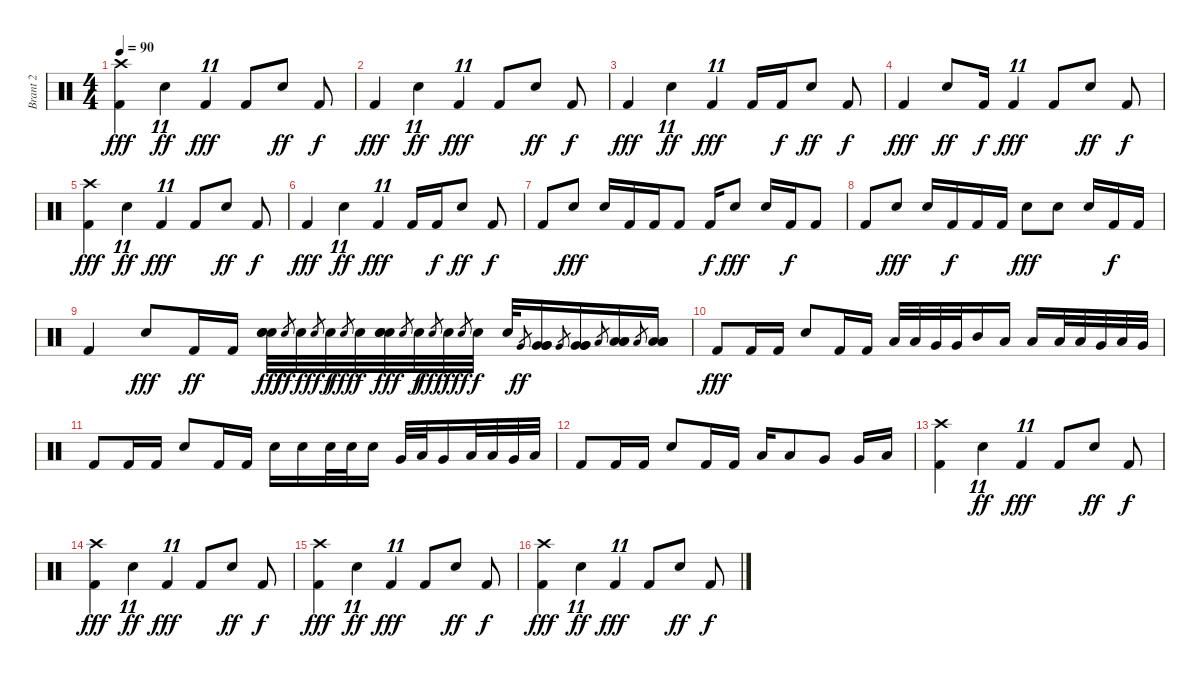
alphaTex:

\track ("Brant 2" "Brant 2") {instrument percussion}
\staff {score}
\articulation defaults
\ts (4 4)
\tempo 90
\clef neutral
\ks c
("Crash high (hit)" "Kick (hit) 2").4{dy fff} "Electric Snare (hit)".4{tu (11 8) dy ff} "Kick (hit) 2".4{tu (11 8) dy fff} "Kick (hit) 2".8 "Electric Snare (hit)".8{dy ff} "Kick (hit) 2".8{dy f} |
"Kick (hit) 2".4{dy fff} "Electric Snare (hit)".4{tu (11 8) dy ff} "Kick (hit) 2".4{tu (11 8) dy fff} "Kick (hit) 2".8 "Electric Snare (hit)".8{dy ff} "Kick (hit) 2".8{dy f} |
"Kick (hit) 2".4{dy fff} "Electric Snare (hit)".4{tu (11 8) dy ff} "Kick (hit) 2".4{tu (11 8) dy fff} "Kick (hit) 2".16 "Kick (hit) 2".16{dy f} "Electric Snare (hit)".8{dy ff} "Kick (hit) 2".8{dy f} |
"Kick (hit) 2".4{dy fff} "Electric Snare (hit)".8{dy ff} "Kick (hit) 2".16{dy f} "Kick (hit) 2".4{tu (11 8) dy fff} "Kick (hit) 2".8 "Electric Snare (hit)".8{dy ff} "Kick (hit) 2".8{dy f} |
("Crash high (hit)" "Kick (hit) 2").4{dy fff} "Electric Snare (hit)".4{tu (11 8) dy ff} "Kick (hit) 2".4{tu (11 8) dy fff} "Kick (hit) 2".8 "Electric Snare (hit)".8{dy ff} "Kick (hit) 2".8{dy f} |
"Kick (hit) 2".4{dy fff} "Electric Snare (hit)".4{tu (11 8) dy ff} "Kick (hit) 2".4{tu (11 8) dy fff} "Kick (hit) 2".16 "Kick (hit) 2".16{dy f} "Electric Snare (hit)".8{dy ff} "Kick (hit) 2".8{dy f} |
"Kick (hit) 2".8 "Electric Snare (hit)".8{dy fff} "Electric Snare (hit)".16 "Kick (hit) 2".16 "Kick (hit) 2".16 "Kick (hit) 2".8 "Kick (hit) 2".16{dy f} "Electric Snare (hit)".8{dy fff} "Electric Snare (hit)".16 "Kick (hit) 2".16{dy f} "Kick (hit) 2".8 |
"Kick (hit) 2".8 "Electric Snare (hit)".8{dy fff} "Electric Snare (hit)".16 "Kick (hit) 2".16{dy f} "Kick (hit) 2".16 "Kick (hit) 2".16 "Electric Snare (hit)".8{dy fff} "Electric Snare (hit)".8 "Electric Snare (hit)".16 "Kick (hit) 2".16{dy f} "Kick (hit) 2".16 |
"Kick (hit) 2".4 "Electric Snare (hit)".8{dy fff} "Kick (hit) 2".16{dy ff} "Kick (hit) 2".16 ("Electric Snare (hit)" "Electric Snare (hit)" "Electric Snare (hit)").32{dy fff} "Electric Snare (hit)".8{gr dy ff} "Snare (hit) 2".32{dy f} "Electric Snare (hit)".8{gr dy ff} "Snare (hit) 2".32{dy f} "Electric Snare (hit)".8{gr dy fff} "Snare (hit) 2".32{dy f} ("Electric Snare (hit)" "Electric Snare (hit)" "Electric Snare (hit)").32{dy fff} "Electric Snare (hit)".8{gr} "Snare (hit) 2".32{dy f} "Electric Snare (hit)".8{gr dy fff} "Snare (hit) 2".32{dy f} "Electric Snare (hit)".8{gr dy ff} "Snare (hit) 2".32{dy f} "Snare (hit) 2".32 "Very Low Tom (hit)".8{gr dy ff} ("Very Low Tom (hit)" "Very Low Tom (hit)" "Very Low Tom (hit)").16 "Very Low Tom (hit)".8{gr} ("Very Low Tom (hit)" "Very Low Tom (hit)" "Very Low Tom (hit)").16 "Low Floor Tom (hit)".8{gr} ("Low Floor Tom (hit)" "Low Floor Tom (hit)" "Low Floor Tom (hit)").16 "Low Floor Tom (hit)".8{gr} ("Low Floor Tom (hit)" "Low Floor Tom (hit)" "Low Floor Tom (hit)").16 |
"Kick (hit) 2".8{dy fff} "Kick (hit) 2".16 "Kick (hit) 2".16 "Electric Snare (hit)".8 "Kick (hit) 2".16 "Kick (hit) 2".16 "Low Tom (hit)".32 "Low Tom (hit)".32 "Very Low Tom (hit)".32 "Very Low Tom (hit)".32 "Mid Tom (hit)".16 "Low Floor Tom (hit)".16 "Low Tom (hit)".16 "Low Floor Tom (hit)".32 "Low Tom (hit)".32 "Very Low Tom (hit)".32 "Low Floor Tom (hit)".32 "Very Low Tom (hit)".32 |
"Kick (hit) 2".8 "Kick (hit) 2".16 "Kick (hit) 2".16 "Electric Snare (hit)".8 "Kick (hit) 2".16 "Kick (hit) 2".16 "Electric Snare (hit)".16 "Electric Snare (hit)".16 "Electric Snare (hit)".32 "Electric Snare (hit)".32 "Electric Snare (hit)".16 "Very Low Tom (hit)".32 "Low Tom (hit)".32 "Very Low Tom (hit)".16 "Low Tom (hit)".32 "Low Floor Tom (hit)".32 "Very Low Tom (hit)".32 "Low Floor Tom (hit)".32 |
"Kick (hit) 2".8 "Kick (hit) 2".16 "Kick (hit) 2".16 "Electric Snare (hit)".8 "Kick (hit) 2".16 "Kick (hit) 2".16 "Low Tom (hit)".16 "Low Tom (hit)".8 "Very Low Tom (hit)".8 "Very Low Tom (hit)".16 "Low Floor Tom (hit)".16 |
("Crash high (hit)" "Kick (hit) 2").4 "Electric Snare (hit)".4{tu (11 8) dy ff} "Kick (hit) 2".4{tu (11 8) dy fff} "Kick (hit) 2".8 "Electric Snare (hit)".8{dy ff} "Kick (hit) 2".8{dy f} |
("Crash high (hit)" "Kick (hit) 2").4{dy fff} "Electric Snare (hit)".4{tu (11 8) dy ff} "Kick (hit) 2".4{tu (11 8) dy fff} "Kick (hit) 2".8 "Electric Snare (hit)".8{dy ff} "Kick (hit) 2".8{dy f} |
("Crash high (hit)" "Kick (hit) 2").4{dy fff} "Electric Snare (hit)".4{tu (11 8) dy ff} "Kick (hit) 2".4{tu (11 8) dy fff} "Kick (hit) 2".8 "Electric Snare (hit)".8{dy ff} "Kick (hit) 2".8{dy f} |
("Crash high (hit)" "Kick (hit) 2").4{dy fff} "Electric Snare (hit)".4{tu (11 8) dy ff} "Kick (hit) 2".4{tu (11 8) dy fff} "Kick (hit) 2".8 "Electric Snare (hit)".8{dy ff} "Kick (hit) 2".8{dy f}
